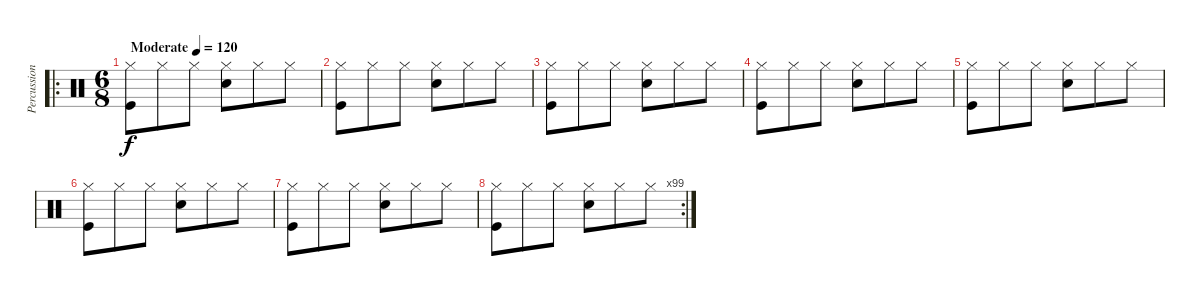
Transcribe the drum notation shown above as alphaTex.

\track ("Percussion" "Percussion") {instrument percussion}
\staff {score}
\articulation defaults
\ro
\ts (6 8)
\tempo (120 "Moderate")
\clef neutral
\ks c
("Hi-Hat (closed)" "Kick (hit)").8{dy f} "Hi-Hat (closed)".8 "Hi-Hat (closed)".8 ("Hi-Hat (closed)" "Snare (hit) 2").8 "Hi-Hat (closed)".8 "Hi-Hat (closed)".8 |
("Hi-Hat (closed)" "Kick (hit)").8 "Hi-Hat (closed)".8 "Hi-Hat (closed)".8 ("Hi-Hat (closed)" "Snare (hit) 2").8 "Hi-Hat (closed)".8 "Hi-Hat (closed)".8 |
("Hi-Hat (closed)" "Kick (hit)").8 "Hi-Hat (closed)".8 "Hi-Hat (closed)".8 ("Hi-Hat (closed)" "Snare (hit) 2").8 "Hi-Hat (closed)".8 "Hi-Hat (closed)".8 |
("Hi-Hat (closed)" "Kick (hit)").8 "Hi-Hat (closed)".8 "Hi-Hat (closed)".8 ("Hi-Hat (closed)" "Snare (hit) 2").8 "Hi-Hat (closed)".8 "Hi-Hat (closed)".8 |
("Hi-Hat (closed)" "Kick (hit)").8 "Hi-Hat (closed)".8 "Hi-Hat (closed)".8 ("Hi-Hat (closed)" "Snare (hit) 2").8 "Hi-Hat (closed)".8 "Hi-Hat (closed)".8 |
("Hi-Hat (closed)" "Kick (hit)").8 "Hi-Hat (closed)".8 "Hi-Hat (closed)".8 ("Hi-Hat (closed)" "Snare (hit) 2").8 "Hi-Hat (closed)".8 "Hi-Hat (closed)".8 |
("Hi-Hat (closed)" "Kick (hit)").8 "Hi-Hat (closed)".8 "Hi-Hat (closed)".8 ("Hi-Hat (closed)" "Snare (hit) 2").8 "Hi-Hat (closed)".8 "Hi-Hat (closed)".8 |
\rc 99
("Hi-Hat (closed)" "Kick (hit)").8 "Hi-Hat (closed)".8 "Hi-Hat (closed)".8 ("Hi-Hat (closed)" "Snare (hit) 2").8 "Hi-Hat (closed)".8 "Hi-Hat (closed)".8
